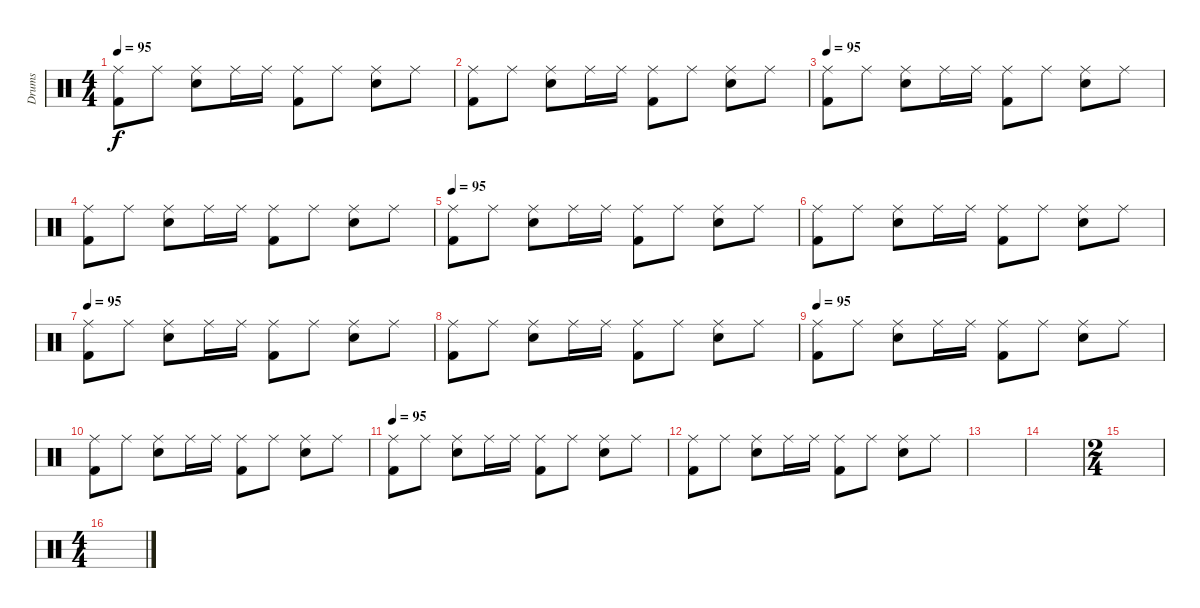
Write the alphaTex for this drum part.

\track ("Drums" "Drums") {instrument percussion}
\staff {score}
\articulation defaults
\ts (4 4)
\tempo 95
\clef neutral
\ks c
("Ride (middle)" "Kick (hit) 2").8{dy f} "Ride (middle)".8 ("Ride (middle)" "Electric Snare (hit)").8 "Ride (middle)".16 "Ride (middle)".16 ("Ride (middle)" "Kick (hit) 2").8 "Ride (middle)".8 ("Ride (middle)" "Electric Snare (hit)").8 "Ride (middle)".8 |
("Ride (middle)" "Kick (hit) 2").8 "Ride (middle)".8 ("Ride (middle)" "Electric Snare (hit)").8 "Ride (middle)".16 "Ride (middle)".16 ("Ride (middle)" "Kick (hit) 2").8 "Ride (middle)".8 ("Ride (middle)" "Electric Snare (hit)").8 "Ride (middle)".8 |
\tempo 95
("Ride (middle)" "Kick (hit) 2").8 "Ride (middle)".8 ("Ride (middle)" "Electric Snare (hit)").8 "Ride (middle)".16 "Ride (middle)".16 ("Ride (middle)" "Kick (hit) 2").8 "Ride (middle)".8 ("Ride (middle)" "Electric Snare (hit)").8 "Ride (middle)".8 |
("Ride (middle)" "Kick (hit) 2").8 "Ride (middle)".8 ("Ride (middle)" "Electric Snare (hit)").8 "Ride (middle)".16 "Ride (middle)".16 ("Ride (middle)" "Kick (hit) 2").8 "Ride (middle)".8 ("Ride (middle)" "Electric Snare (hit)").8 "Ride (middle)".8 |
\tempo 95
("Ride (middle)" "Kick (hit) 2").8 "Ride (middle)".8 ("Ride (middle)" "Electric Snare (hit)").8 "Ride (middle)".16 "Ride (middle)".16 ("Ride (middle)" "Kick (hit) 2").8 "Ride (middle)".8 ("Ride (middle)" "Electric Snare (hit)").8 "Ride (middle)".8 |
("Ride (middle)" "Kick (hit) 2").8 "Ride (middle)".8 ("Ride (middle)" "Electric Snare (hit)").8 "Ride (middle)".16 "Ride (middle)".16 ("Ride (middle)" "Kick (hit) 2").8 "Ride (middle)".8 ("Ride (middle)" "Electric Snare (hit)").8 "Ride (middle)".8 |
\tempo 95
("Ride (middle)" "Kick (hit) 2").8 "Ride (middle)".8 ("Ride (middle)" "Electric Snare (hit)").8 "Ride (middle)".16 "Ride (middle)".16 ("Ride (middle)" "Kick (hit) 2").8 "Ride (middle)".8 ("Ride (middle)" "Electric Snare (hit)").8 "Ride (middle)".8 |
("Ride (middle)" "Kick (hit) 2").8 "Ride (middle)".8 ("Ride (middle)" "Electric Snare (hit)").8 "Ride (middle)".16 "Ride (middle)".16 ("Ride (middle)" "Kick (hit) 2").8 "Ride (middle)".8 ("Ride (middle)" "Electric Snare (hit)").8 "Ride (middle)".8 |
\tempo 95
("Ride (middle)" "Kick (hit) 2").8 "Ride (middle)".8 ("Ride (middle)" "Electric Snare (hit)").8 "Ride (middle)".16 "Ride (middle)".16 ("Ride (middle)" "Kick (hit) 2").8 "Ride (middle)".8 ("Ride (middle)" "Electric Snare (hit)").8 "Ride (middle)".8 |
("Ride (middle)" "Kick (hit) 2").8 "Ride (middle)".8 ("Ride (middle)" "Electric Snare (hit)").8 "Ride (middle)".16 "Ride (middle)".16 ("Ride (middle)" "Kick (hit) 2").8 "Ride (middle)".8 ("Ride (middle)" "Electric Snare (hit)").8 "Ride (middle)".8 |
\tempo 95
("Ride (middle)" "Kick (hit) 2").8 "Ride (middle)".8 ("Ride (middle)" "Electric Snare (hit)").8 "Ride (middle)".16 "Ride (middle)".16 ("Ride (middle)" "Kick (hit) 2").8 "Ride (middle)".8 ("Ride (middle)" "Electric Snare (hit)").8 "Ride (middle)".8 |
("Ride (middle)" "Kick (hit) 2").8 "Ride (middle)".8 ("Ride (middle)" "Electric Snare (hit)").8 "Ride (middle)".16 "Ride (middle)".16 ("Ride (middle)" "Kick (hit) 2").8 "Ride (middle)".8 ("Ride (middle)" "Electric Snare (hit)").8 "Ride (middle)".8 |
|
|
\ts (2 4)
|
\ts (4 4)
